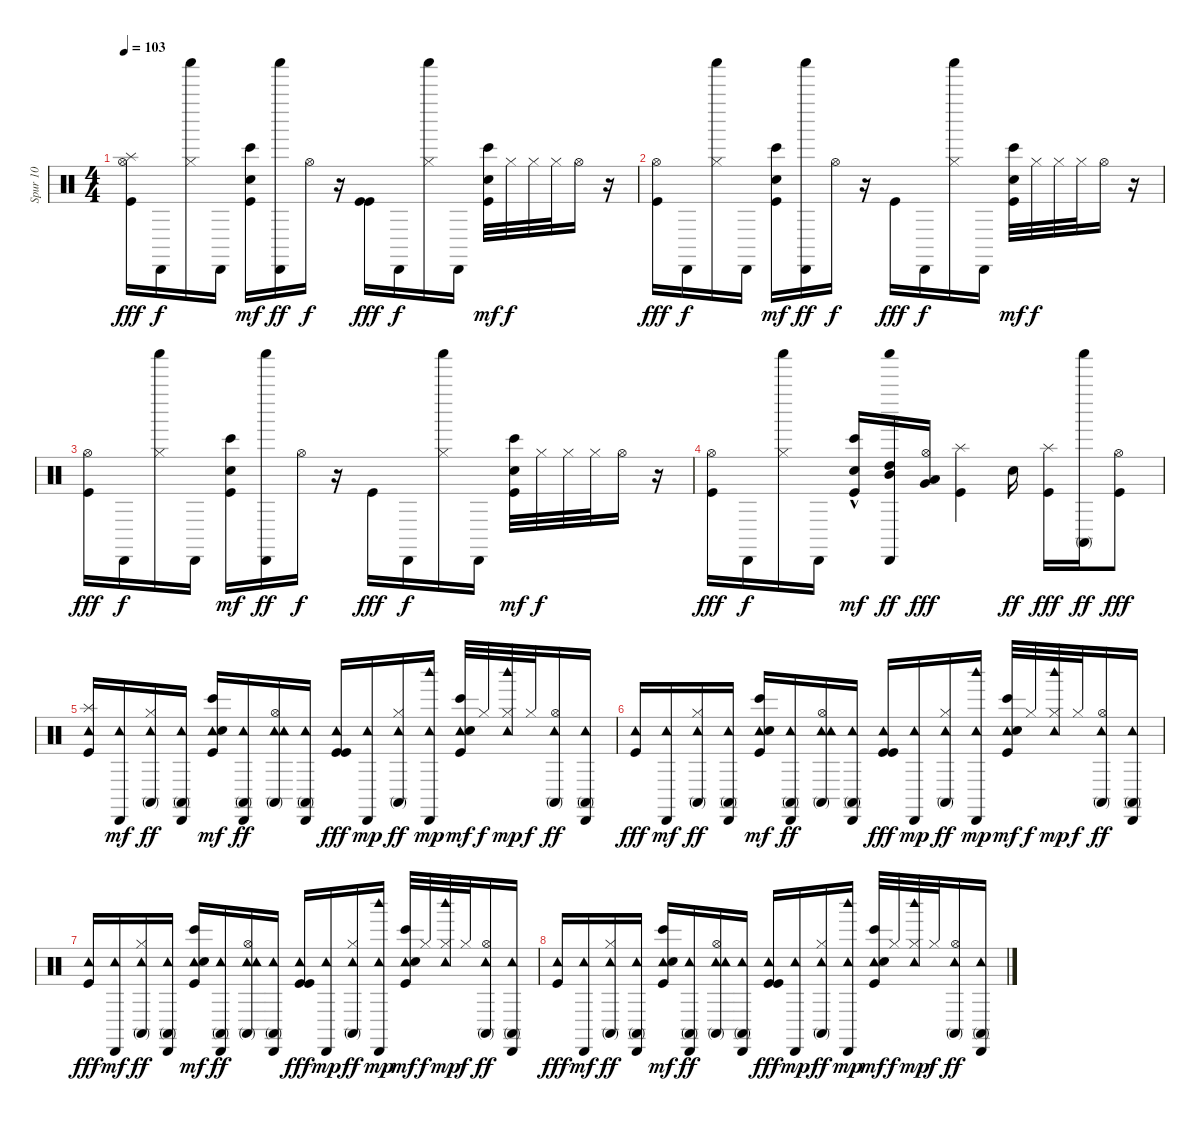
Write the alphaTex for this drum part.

\track ("Spur 10" "Spur 10") {instrument percussion}
\staff {score}
\articulation defaults
\ts (4 4)
\tempo 103
\clef neutral
\ks c
("Hi-Hat (open)" "Splash (hit)" "Kick (hit)").16{dy fff} "Cabasa (hit)".16{dy f} ("Shaker (hit)" "Hi-Hat (closed)").16 "Cabasa (hit)".16 ("Kick (hit)" "Electric Snare (hit)" "Bongo High (hit)").16{dy mf} ("Cabasa (hit)" "Shaker (hit)").16{dy ff} "Hi-Hat (open)".16{dy f} r.16 ("Kick (hit)" "Kick (hit)").16{dy fff} "Cabasa (hit)".16{dy f} ("Hi-Hat (closed)" "Shaker (hit)").16 "Cabasa (hit)".16 ("Kick (hit)" "Electric Snare (hit)" "Bongo High (hit)").32{dy mf} "Hi-Hat (closed)".32{dy f} "Hi-Hat (closed)".32 "Hi-Hat (closed)".32 "Hi-Hat (open)".16 r.16 |
("Hi-Hat (open)" "Kick (hit)").16{dy fff} "Cabasa (hit)".16{dy f} ("Shaker (hit)" "Hi-Hat (closed)").16 "Cabasa (hit)".16 ("Kick (hit)" "Electric Snare (hit)" "Bongo High (hit)").16{dy mf} ("Cabasa (hit)" "Shaker (hit)").16{dy ff} "Hi-Hat (open)".16{dy f} r.16 "Kick (hit)".16{dy fff} "Cabasa (hit)".16{dy f} ("Hi-Hat (closed)" "Shaker (hit)").16 "Cabasa (hit)".16 ("Kick (hit)" "Electric Snare (hit)" "Bongo High (hit)").32{dy mf} "Hi-Hat (closed)".32{dy f} "Hi-Hat (closed)".32 "Hi-Hat (closed)".32 "Hi-Hat (open)".16 r.16 |
("Hi-Hat (open)" "Kick (hit)").16{dy fff} "Cabasa (hit)".16{dy f} ("Shaker (hit)" "Hi-Hat (closed)").16 "Cabasa (hit)".16 ("Kick (hit)" "Electric Snare (hit)" "Bongo High (hit)").16{dy mf} ("Cabasa (hit)" "Shaker (hit)").16{dy ff} "Hi-Hat (open)".16{dy f} r.16 "Kick (hit)".16{dy fff} "Cabasa (hit)".16{dy f} ("Hi-Hat (closed)" "Shaker (hit)").16 "Cabasa (hit)".16 ("Kick (hit)" "Electric Snare (hit)" "Bongo High (hit)").32{dy mf} "Hi-Hat (closed)".32{dy f} "Hi-Hat (closed)".32 "Hi-Hat (closed)".32 "Hi-Hat (open)".16 r.16 |
("Hi-Hat (open)" "Kick (hit)").16{dy fff} "Cabasa (hit)".16{dy f} ("Shaker (hit)" "Hi-Hat (closed)").16 "Cabasa (hit)".16 ("Kick (hit)"{hac} "Electric Snare (hit)" "Bongo High (hit)").16{dy mf} ("High Tom (hit)" "Mid Tom (hit)" "Cabasa (hit)" "Shaker (hit)").16{dy ff} ("Low Tom (hit)" "Hi-Hat (open)" "Very Low Tom (hit)").16{dy fff} ("Splash (hit)" "Kick (hit)").4 "Snare (hit) 2".16{dy ff} ("Kick (hit)" "Splash (hit)").16{dy fff} ("Conga high (mute)" "Shaker (hit)").16{dy ff} ("Hi-Hat (open)" "Kick (hit)").8{dy fff} |
("Splash (hit)" "Tambourine (hit)" "Kick (hit)").16 ("Tambourine (hit)" "Cabasa (hit)").16{dy mf} ("Tambourine (hit)" "Hi-Hat (closed)" "Conga high (mute)").16{dy ff} ("Tambourine (hit)" "Cabasa (hit)" "Conga high (mute)").16 ("Tambourine (hit)" "Kick (hit)" "Electric Snare (hit)" "Bongo High (hit)").16{dy mf} ("Tambourine (hit)" "Cabasa (hit)" "Conga high (mute)").16{dy ff} ("Tambourine (hit)" "Hi-Hat (open)" "Tambourine (hit)" "Conga high (mute)").16 ("Tambourine (hit)" "Cabasa (hit)" "Conga high (mute)").16 ("Tambourine (hit)" "Kick (hit)" "Kick (hit)").16{dy fff} ("Cabasa (hit)" "Tambourine (hit)").16{dy mp} ("Hi-Hat (closed)" "Tambourine (hit)" "Conga high (mute)").16{dy ff} ("Cabasa (hit)" "Tambourine (hit)" "Woodblock high (hit)").16{dy mp} ("Tambourine (hit)" "Kick (hit)" "Electric Snare (hit)" "Bongo High (hit)").32{dy mf} "Hi-Hat (closed)".32{dy f} ("Hi-Hat (closed)" "Tambourine (hit)" "Woodblock high (hit)").32{dy mp} "Hi-Hat (closed)".32{dy f} ("Hi-Hat (open)" "Tambourine (hit)" "Conga high (mute)").16{dy ff} ("Tambourine (hit)" "Cabasa (hit)" "Conga high (mute)").16 |
("Tambourine (hit)" "Kick (hit)").16{dy fff} ("Tambourine (hit)" "Cabasa (hit)").16{dy mf} ("Tambourine (hit)" "Hi-Hat (closed)" "Conga high (mute)").16{dy ff} ("Tambourine (hit)" "Cabasa (hit)" "Conga high (mute)").16 ("Tambourine (hit)" "Kick (hit)" "Electric Snare (hit)" "Bongo High (hit)").16{dy mf} ("Tambourine (hit)" "Cabasa (hit)" "Conga high (mute)").16{dy ff} ("Tambourine (hit)" "Hi-Hat (open)" "Tambourine (hit)" "Conga high (mute)").16 ("Tambourine (hit)" "Cabasa (hit)" "Conga high (mute)").16 ("Tambourine (hit)" "Kick (hit)" "Kick (hit)").16{dy fff} ("Cabasa (hit)" "Tambourine (hit)").16{dy mp} ("Hi-Hat (closed)" "Tambourine (hit)" "Conga high (mute)").16{dy ff} ("Cabasa (hit)" "Tambourine (hit)" "Woodblock high (hit)").16{dy mp} ("Tambourine (hit)" "Kick (hit)" "Electric Snare (hit)" "Bongo High (hit)").32{dy mf} "Hi-Hat (closed)".32{dy f} ("Hi-Hat (closed)" "Tambourine (hit)" "Woodblock high (hit)").32{dy mp} "Hi-Hat (closed)".32{dy f} ("Hi-Hat (open)" "Tambourine (hit)" "Conga high (mute)").16{dy ff} ("Tambourine (hit)" "Cabasa (hit)" "Conga high (mute)").16 |
("Tambourine (hit)" "Kick (hit)").16{dy fff} ("Tambourine (hit)" "Cabasa (hit)").16{dy mf} ("Tambourine (hit)" "Hi-Hat (closed)" "Conga high (mute)").16{dy ff} ("Tambourine (hit)" "Cabasa (hit)" "Conga high (mute)").16 ("Tambourine (hit)" "Kick (hit)" "Electric Snare (hit)" "Bongo High (hit)").16{dy mf} ("Tambourine (hit)" "Cabasa (hit)" "Conga high (mute)").16{dy ff} ("Tambourine (hit)" "Hi-Hat (open)" "Tambourine (hit)" "Conga high (mute)").16 ("Tambourine (hit)" "Cabasa (hit)" "Conga high (mute)").16 ("Tambourine (hit)" "Kick (hit)" "Kick (hit)").16{dy fff} ("Cabasa (hit)" "Tambourine (hit)").16{dy mp} ("Hi-Hat (closed)" "Tambourine (hit)" "Conga high (mute)").16{dy ff} ("Cabasa (hit)" "Tambourine (hit)" "Woodblock high (hit)").16{dy mp} ("Tambourine (hit)" "Kick (hit)" "Electric Snare (hit)" "Bongo High (hit)").32{dy mf} "Hi-Hat (closed)".32{dy f} ("Hi-Hat (closed)" "Tambourine (hit)" "Woodblock high (hit)").32{dy mp} "Hi-Hat (closed)".32{dy f} ("Hi-Hat (open)" "Tambourine (hit)" "Conga high (mute)").16{dy ff} ("Tambourine (hit)" "Cabasa (hit)" "Conga high (mute)").16 |
("Tambourine (hit)" "Kick (hit)").16{dy fff} ("Tambourine (hit)" "Cabasa (hit)").16{dy mf} ("Tambourine (hit)" "Hi-Hat (closed)" "Conga high (mute)").16{dy ff} ("Tambourine (hit)" "Cabasa (hit)" "Conga high (mute)").16 ("Tambourine (hit)" "Kick (hit)" "Electric Snare (hit)" "Bongo High (hit)").16{dy mf} ("Tambourine (hit)" "Cabasa (hit)" "Conga high (mute)").16{dy ff} ("Tambourine (hit)" "Hi-Hat (open)" "Tambourine (hit)" "Conga high (mute)").16 ("Tambourine (hit)" "Cabasa (hit)" "Conga high (mute)").16 ("Tambourine (hit)" "Kick (hit)" "Kick (hit)").16{dy fff} ("Cabasa (hit)" "Tambourine (hit)").16{dy mp} ("Hi-Hat (closed)" "Tambourine (hit)" "Conga high (mute)").16{dy ff} ("Cabasa (hit)" "Tambourine (hit)" "Woodblock high (hit)").16{dy mp} ("Tambourine (hit)" "Kick (hit)" "Electric Snare (hit)" "Bongo High (hit)").32{dy mf} "Hi-Hat (closed)".32{dy f} ("Hi-Hat (closed)" "Tambourine (hit)" "Woodblock high (hit)").32{dy mp} "Hi-Hat (closed)".32{dy f} ("Hi-Hat (open)" "Tambourine (hit)" "Conga high (mute)").16{dy ff} ("Tambourine (hit)" "Cabasa (hit)" "Conga high (mute)").16
